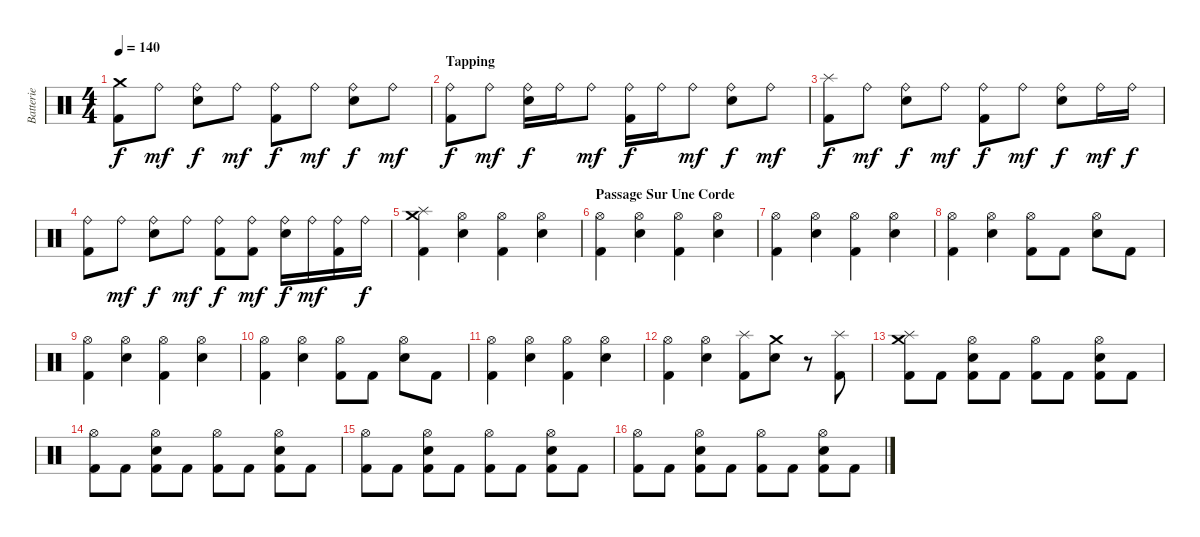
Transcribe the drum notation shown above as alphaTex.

\track ("Batterie" "Batterie") {instrument percussion}
\staff {score}
\articulation defaults
\ts (4 4)
\tempo 140
\clef neutral
\ks c
("Crash medium (hit)" "Kick (hit) 2").8{dy f} "Ride (bell)".8{dy mf} ("Snare (hit) 2" "Ride (bell)").8{dy f} "Ride (bell)".8{dy mf} ("Ride (bell)" "Kick (hit) 2").8{dy f} "Ride (bell)".8{dy mf} ("Snare (hit) 2" "Ride (bell)").8{dy f} "Ride (bell)".8{dy mf} |
\section ("" "Tapping")
("Kick (hit) 2" "Ride (bell)").8{dy f} "Ride (bell)".8{dy mf} ("Ride (bell)" "Snare (hit) 2").16{dy f} "Ride (bell)".16 "Ride (bell)".8{dy mf} ("Kick (hit) 2" "Ride (bell)").16{dy f} "Ride (bell)".16 "Ride (bell)".8{dy mf} ("Ride (bell)" "Snare (hit) 2").8{dy f} "Ride (bell)".8{dy mf} |
("Splash (hit)" "Kick (hit) 2").8{dy f} "Ride (bell)".8{dy mf} ("Snare (hit) 2" "Ride (bell)").8{dy f} "Ride (bell)".8{dy mf} ("Kick (hit) 2" "Ride (bell)").8{dy f} "Ride (bell)".8{dy mf} ("Ride (bell)" "Snare (hit) 2").8{dy f} "Ride (bell)".16{dy mf} "Ride (bell)".16{dy f} |
("Kick (hit) 2" "Ride (bell)").8 "Ride (bell)".8{dy mf} ("Ride (bell)" "Snare (hit) 2").8{dy f} "Ride (bell)".8{dy mf} ("Ride (bell)" "Kick (hit) 2").8{dy f} ("Ride (bell)" "Kick (hit) 2").8{dy mf} ("Snare (hit) 2" "Ride (bell)").16{dy f} "Ride (bell)".16{dy mf} ("Kick (hit) 2" "Ride (bell)").16 "Ride (bell)".16{dy f} |
("Splash (hit)" "Crash medium (hit)" "Kick (hit) 2").4 ("Hi-Hat (open)" "Snare (hit) 2").4 ("Hi-Hat (open)" "Kick (hit) 2").4 ("Snare (hit) 2" "Hi-Hat (open)").4 |
\section ("" "Passage Sur Une Corde")
("Hi-Hat (open)" "Kick (hit) 2").4 ("Snare (hit) 2" "Hi-Hat (open)").4 ("Kick (hit) 2" "Hi-Hat (open)").4 ("Snare (hit) 2" "Hi-Hat (open)").4 |
("Kick (hit) 2" "Hi-Hat (open)").4 ("Hi-Hat (open)" "Snare (hit) 2").4 ("Kick (hit) 2" "Hi-Hat (open)").4 ("Snare (hit) 2" "Hi-Hat (open)").4 |
("Kick (hit) 2" "Hi-Hat (open)").4 ("Snare (hit) 2" "Hi-Hat (open)").4 ("Kick (hit) 2" "Hi-Hat (open)").8 "Kick (hit) 2".8 ("Snare (hit) 2" "Hi-Hat (open)").8 "Kick (hit) 2".8 |
("Hi-Hat (open)" "Kick (hit) 2").4 ("Snare (hit) 2" "Hi-Hat (open)").4 ("Hi-Hat (open)" "Kick (hit) 2").4 ("Snare (hit) 2" "Hi-Hat (open)").4 |
("Hi-Hat (open)" "Kick (hit) 2").4 ("Hi-Hat (open)" "Snare (hit) 2").4 ("Hi-Hat (open)" "Kick (hit) 2").8 "Kick (hit) 2".8 ("Snare (hit) 2" "Hi-Hat (open)").8 "Kick (hit) 2".8 |
("Hi-Hat (open)" "Kick (hit) 2").4 ("Hi-Hat (open)" "Snare (hit) 2").4 ("Hi-Hat (open)" "Kick (hit) 2").4 ("Hi-Hat (open)" "Snare (hit) 2").4 |
("Kick (hit) 2" "Hi-Hat (open)").4 ("Hi-Hat (open)" "Snare (hit) 2").4 ("Kick (hit) 2" "Splash (hit)").8 ("Snare (hit) 2" "Crash medium (hit)").8 r.8 ("Kick (hit) 2" "Splash (hit)").8 |
("Splash (hit)" "Crash medium (hit)" "Kick (hit) 2").8 "Kick (hit) 2".8 ("Hi-Hat (open)" "Kick (hit) 2" "Snare (hit) 2").8 "Kick (hit) 2".8 ("Hi-Hat (open)" "Kick (hit) 2").8 "Kick (hit) 2".8 ("Snare (hit) 2" "Hi-Hat (open)" "Kick (hit) 2").8 "Kick (hit) 2".8 |
("Hi-Hat (open)" "Kick (hit) 2").8 "Kick (hit) 2".8 ("Kick (hit) 2" "Snare (hit) 2" "Hi-Hat (open)").8 "Kick (hit) 2".8 ("Hi-Hat (open)" "Kick (hit) 2").8 "Kick (hit) 2".8 ("Hi-Hat (open)" "Kick (hit) 2" "Snare (hit) 2").8 "Kick (hit) 2".8 |
("Hi-Hat (open)" "Kick (hit) 2").8 "Kick (hit) 2".8 ("Kick (hit) 2" "Snare (hit) 2" "Hi-Hat (open)").8 "Kick (hit) 2".8 ("Hi-Hat (open)" "Kick (hit) 2").8 "Kick (hit) 2".8 ("Hi-Hat (open)" "Kick (hit) 2" "Snare (hit) 2").8 "Kick (hit) 2".8 |
("Hi-Hat (open)" "Kick (hit) 2").8 "Kick (hit) 2".8 ("Kick (hit) 2" "Hi-Hat (open)" "Snare (hit) 2").8 "Kick (hit) 2".8 ("Hi-Hat (open)" "Kick (hit) 2").8 "Kick (hit) 2".8 ("Snare (hit) 2" "Kick (hit) 2" "Hi-Hat (open)").8 "Kick (hit) 2".8
